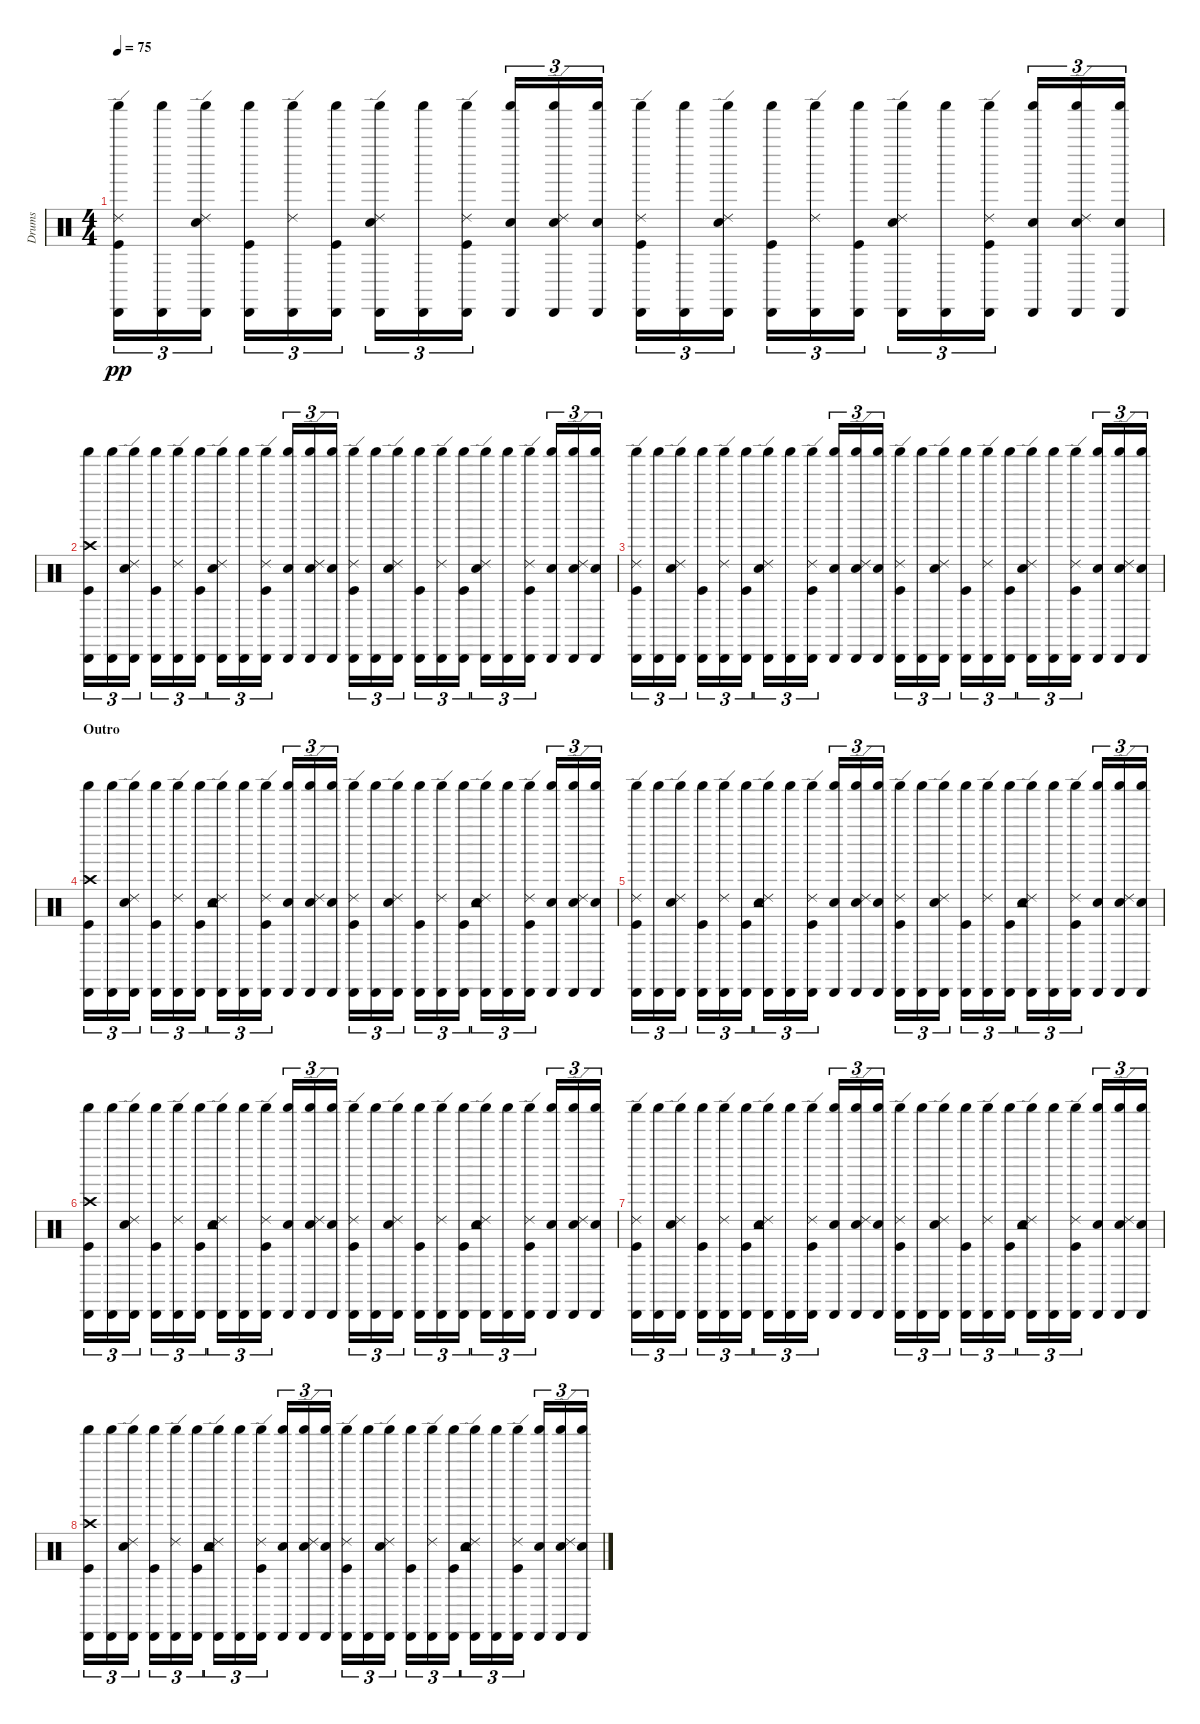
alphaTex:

\track ("Drums" "Drums") {instrument percussion}
\staff {score}
\articulation defaults
\ts (4 4)
\tempo 75
\clef neutral
\ks c
("Kick (hit)" "Ride (edge) 2" "Cabasa (hit)" "Shaker (hit)").16{tu (3 2) dy pp} ("Cabasa (hit)" "Shaker (hit)").16{tu (3 2)} ("Ride (edge) 2" "Cabasa (hit)" "Electric Snare (hit)" "Shaker (hit)").16{tu (3 2)} ("Cabasa (hit)" "Kick (hit)" "Shaker (hit)").16{tu (3 2)} ("Ride (edge) 2" "Cabasa (hit)" "Shaker (hit)").16{tu (3 2)} ("Cabasa (hit)" "Kick (hit)" "Shaker (hit)").16{tu (3 2)} ("Ride (edge) 2" "Cabasa (hit)" "Electric Snare (hit)" "Shaker (hit)").16{tu (3 2)} ("Cabasa (hit)" "Shaker (hit)").16{tu (3 2)} ("Kick (hit)" "Ride (edge) 2" "Cabasa (hit)" "Shaker (hit)").16{tu (3 2)} ("Cabasa (hit)" "Electric Snare (hit)" "Shaker (hit)").16{tu (3 2)} ("Electric Snare (hit)" "Ride (edge) 2" "Cabasa (hit)" "Shaker (hit)").16{tu (3 2)} ("Cabasa (hit)" "Electric Snare (hit)" "Shaker (hit)").16{tu (3 2)} ("Cabasa (hit)" "Kick (hit)" "Ride (edge) 2" "Shaker (hit)").16{tu (3 2)} ("Cabasa (hit)" "Shaker (hit)").16{tu (3 2)} ("Electric Snare (hit)" "Ride (edge) 2" "Cabasa (hit)" "Shaker (hit)").16{tu (3 2)} ("Kick (hit)" "Cabasa (hit)" "Shaker (hit)").16{tu (3 2)} ("Ride (edge) 2" "Cabasa (hit)" "Shaker (hit)").16{tu (3 2)} ("Cabasa (hit)" "Kick (hit)" "Shaker (hit)").16{tu (3 2)} ("Cabasa (hit)" "Ride (edge) 2" "Electric Snare (hit)" "Shaker (hit)").16{tu (3 2)} ("Cabasa (hit)" "Shaker (hit)").16{tu (3 2)} ("Cabasa (hit)" "Ride (edge) 2" "Kick (hit)" "Shaker (hit)").16{tu (3 2)} ("Cabasa (hit)" "Electric Snare (hit)" "Shaker (hit)").16{tu (3 2)} ("Electric Snare (hit)" "Ride (edge) 2" "Cabasa (hit)" "Shaker (hit)").16{tu (3 2)} ("Cabasa (hit)" "Electric Snare (hit)" "Shaker (hit)").16{tu (3 2)} |
("Kick (hit)" "Cabasa (hit)" "Crash high (hit)" "Shaker (hit)").16{tu (3 2)} ("Cabasa (hit)" "Shaker (hit)").16{tu (3 2)} ("Electric Snare (hit)" "Ride (edge) 2" "Cabasa (hit)" "Shaker (hit)").16{tu (3 2)} ("Kick (hit)" "Cabasa (hit)" "Shaker (hit)").16{tu (3 2)} ("Cabasa (hit)" "Ride (edge) 2" "Shaker (hit)").16{tu (3 2)} ("Kick (hit)" "Cabasa (hit)" "Shaker (hit)").16{tu (3 2)} ("Ride (edge) 2" "Cabasa (hit)" "Electric Snare (hit)" "Shaker (hit)").16{tu (3 2)} ("Cabasa (hit)" "Shaker (hit)").16{tu (3 2)} ("Cabasa (hit)" "Ride (edge) 2" "Kick (hit)" "Shaker (hit)").16{tu (3 2)} ("Cabasa (hit)" "Electric Snare (hit)" "Shaker (hit)").16{tu (3 2)} ("Electric Snare (hit)" "Cabasa (hit)" "Ride (edge) 2" "Shaker (hit)").16{tu (3 2)} ("Cabasa (hit)" "Electric Snare (hit)" "Shaker (hit)").16{tu (3 2)} ("Cabasa (hit)" "Kick (hit)" "Ride (edge) 2" "Shaker (hit)").16{tu (3 2)} ("Cabasa (hit)" "Shaker (hit)").16{tu (3 2)} ("Ride (edge) 2" "Cabasa (hit)" "Electric Snare (hit)" "Shaker (hit)").16{tu (3 2)} ("Cabasa (hit)" "Kick (hit)" "Shaker (hit)").16{tu (3 2)} ("Cabasa (hit)" "Ride (edge) 2" "Shaker (hit)").16{tu (3 2)} ("Kick (hit)" "Cabasa (hit)" "Shaker (hit)").16{tu (3 2)} ("Electric Snare (hit)" "Cabasa (hit)" "Ride (edge) 2" "Shaker (hit)").16{tu (3 2)} ("Cabasa (hit)" "Shaker (hit)").16{tu (3 2)} ("Cabasa (hit)" "Kick (hit)" "Ride (edge) 2" "Shaker (hit)").16{tu (3 2)} ("Cabasa (hit)" "Electric Snare (hit)" "Shaker (hit)").16{tu (3 2)} ("Electric Snare (hit)" "Ride (edge) 2" "Cabasa (hit)" "Shaker (hit)").16{tu (3 2)} ("Cabasa (hit)" "Electric Snare (hit)" "Shaker (hit)").16{tu (3 2)} |
("Kick (hit)" "Ride (edge) 2" "Cabasa (hit)" "Shaker (hit)").16{tu (3 2)} ("Cabasa (hit)" "Shaker (hit)").16{tu (3 2)} ("Ride (edge) 2" "Cabasa (hit)" "Electric Snare (hit)" "Shaker (hit)").16{tu (3 2)} ("Cabasa (hit)" "Kick (hit)" "Shaker (hit)").16{tu (3 2)} ("Ride (edge) 2" "Cabasa (hit)" "Shaker (hit)").16{tu (3 2)} ("Cabasa (hit)" "Kick (hit)" "Shaker (hit)").16{tu (3 2)} ("Ride (edge) 2" "Cabasa (hit)" "Electric Snare (hit)" "Shaker (hit)").16{tu (3 2)} ("Cabasa (hit)" "Shaker (hit)").16{tu (3 2)} ("Kick (hit)" "Ride (edge) 2" "Cabasa (hit)" "Shaker (hit)").16{tu (3 2)} ("Cabasa (hit)" "Electric Snare (hit)" "Shaker (hit)").16{tu (3 2)} ("Electric Snare (hit)" "Ride (edge) 2" "Cabasa (hit)" "Shaker (hit)").16{tu (3 2)} ("Cabasa (hit)" "Electric Snare (hit)" "Shaker (hit)").16{tu (3 2)} ("Cabasa (hit)" "Kick (hit)" "Ride (edge) 2" "Shaker (hit)").16{tu (3 2)} ("Cabasa (hit)" "Shaker (hit)").16{tu (3 2)} ("Electric Snare (hit)" "Ride (edge) 2" "Cabasa (hit)" "Shaker (hit)").16{tu (3 2)} ("Kick (hit)" "Cabasa (hit)" "Shaker (hit)").16{tu (3 2)} ("Ride (edge) 2" "Cabasa (hit)" "Shaker (hit)").16{tu (3 2)} ("Cabasa (hit)" "Kick (hit)" "Shaker (hit)").16{tu (3 2)} ("Cabasa (hit)" "Ride (edge) 2" "Electric Snare (hit)" "Shaker (hit)").16{tu (3 2)} ("Cabasa (hit)" "Shaker (hit)").16{tu (3 2)} ("Cabasa (hit)" "Ride (edge) 2" "Kick (hit)" "Shaker (hit)").16{tu (3 2)} ("Cabasa (hit)" "Electric Snare (hit)" "Shaker (hit)").16{tu (3 2)} ("Electric Snare (hit)" "Ride (edge) 2" "Cabasa (hit)" "Shaker (hit)").16{tu (3 2)} ("Cabasa (hit)" "Electric Snare (hit)" "Shaker (hit)").16{tu (3 2)} |
\section ("" "Outro")
("Kick (hit)" "Cabasa (hit)" "Crash high (hit)" "Shaker (hit)").16{tu (3 2)} ("Cabasa (hit)" "Shaker (hit)").16{tu (3 2)} ("Cabasa (hit)" "Ride (edge) 2" "Electric Snare (hit)" "Shaker (hit)").16{tu (3 2)} ("Kick (hit)" "Cabasa (hit)" "Shaker (hit)").16{tu (3 2)} ("Cabasa (hit)" "Ride (edge) 2" "Shaker (hit)").16{tu (3 2)} ("Kick (hit)" "Cabasa (hit)" "Shaker (hit)").16{tu (3 2)} ("Electric Snare (hit)" "Ride (edge) 2" "Cabasa (hit)" "Tambourine (hit)" "Shaker (hit)").16{tu (3 2)} ("Cabasa (hit)" "Shaker (hit)").16{tu (3 2)} ("Ride (edge) 2" "Kick (hit)" "Cabasa (hit)" "Shaker (hit)").16{tu (3 2)} ("Electric Snare (hit)" "Cabasa (hit)" "Shaker (hit)").16{tu (3 2)} ("Cabasa (hit)" "Electric Snare (hit)" "Ride (edge) 2" "Shaker (hit)").16{tu (3 2)} ("Cabasa (hit)" "Electric Snare (hit)" "Shaker (hit)").16{tu (3 2)} ("Ride (edge) 2" "Kick (hit)" "Cabasa (hit)" "Shaker (hit)").16{tu (3 2)} ("Cabasa (hit)" "Shaker (hit)").16{tu (3 2)} ("Cabasa (hit)" "Electric Snare (hit)" "Ride (edge) 2" "Shaker (hit)").16{tu (3 2)} ("Kick (hit)" "Cabasa (hit)" "Shaker (hit)").16{tu (3 2)} ("Ride (edge) 2" "Cabasa (hit)" "Shaker (hit)").16{tu (3 2)} ("Kick (hit)" "Cabasa (hit)" "Shaker (hit)").16{tu (3 2)} ("Electric Snare (hit)" "Ride (edge) 2" "Cabasa (hit)" "Tambourine (hit)" "Shaker (hit)").16{tu (3 2)} ("Cabasa (hit)" "Shaker (hit)").16{tu (3 2)} ("Ride (edge) 2" "Kick (hit)" "Cabasa (hit)" "Shaker (hit)").16{tu (3 2)} ("Cabasa (hit)" "Electric Snare (hit)" "Shaker (hit)").16{tu (3 2)} ("Electric Snare (hit)" "Cabasa (hit)" "Ride (edge) 2" "Shaker (hit)").16{tu (3 2)} ("Cabasa (hit)" "Electric Snare (hit)" "Shaker (hit)").16{tu (3 2)} |
("Cabasa (hit)" "Ride (edge) 2" "Kick (hit)" "Shaker (hit)").16{tu (3 2)} ("Cabasa (hit)" "Shaker (hit)").16{tu (3 2)} ("Cabasa (hit)" "Electric Snare (hit)" "Ride (edge) 2" "Shaker (hit)").16{tu (3 2)} ("Kick (hit)" "Cabasa (hit)" "Shaker (hit)").16{tu (3 2)} ("Ride (edge) 2" "Cabasa (hit)" "Shaker (hit)").16{tu (3 2)} ("Kick (hit)" "Cabasa (hit)" "Shaker (hit)").16{tu (3 2)} ("Ride (edge) 2" "Cabasa (hit)" "Electric Snare (hit)" "Tambourine (hit)" "Shaker (hit)").16{tu (3 2)} ("Cabasa (hit)" "Shaker (hit)").16{tu (3 2)} ("Cabasa (hit)" "Kick (hit)" "Ride (edge) 2" "Shaker (hit)").16{tu (3 2)} ("Cabasa (hit)" "Electric Snare (hit)" "Shaker (hit)").16{tu (3 2)} ("Cabasa (hit)" "Ride (edge) 2" "Electric Snare (hit)" "Shaker (hit)").16{tu (3 2)} ("Cabasa (hit)" "Electric Snare (hit)" "Shaker (hit)").16{tu (3 2)} ("Kick (hit)" "Ride (edge) 2" "Cabasa (hit)" "Shaker (hit)").16{tu (3 2)} ("Cabasa (hit)" "Shaker (hit)").16{tu (3 2)} ("Cabasa (hit)" "Electric Snare (hit)" "Ride (edge) 2" "Shaker (hit)").16{tu (3 2)} ("Kick (hit)" "Cabasa (hit)" "Shaker (hit)").16{tu (3 2)} ("Cabasa (hit)" "Ride (edge) 2" "Shaker (hit)").16{tu (3 2)} ("Kick (hit)" "Cabasa (hit)" "Shaker (hit)").16{tu (3 2)} ("Cabasa (hit)" "Ride (edge) 2" "Electric Snare (hit)" "Tambourine (hit)" "Shaker (hit)").16{tu (3 2)} ("Cabasa (hit)" "Shaker (hit)").16{tu (3 2)} ("Ride (edge) 2" "Kick (hit)" "Cabasa (hit)" "Shaker (hit)").16{tu (3 2)} ("Cabasa (hit)" "Electric Snare (hit)" "Shaker (hit)").16{tu (3 2)} ("Electric Snare (hit)" "Cabasa (hit)" "Ride (edge) 2" "Shaker (hit)").16{tu (3 2)} ("Cabasa (hit)" "Electric Snare (hit)" "Shaker (hit)").16{tu (3 2)} |
("Kick (hit)" "Cabasa (hit)" "Crash high (hit)" "Shaker (hit)").16{tu (3 2)} ("Cabasa (hit)" "Shaker (hit)").16{tu (3 2)} ("Cabasa (hit)" "Ride (edge) 2" "Electric Snare (hit)" "Shaker (hit)").16{tu (3 2)} ("Kick (hit)" "Cabasa (hit)" "Shaker (hit)").16{tu (3 2)} ("Cabasa (hit)" "Ride (edge) 2" "Shaker (hit)").16{tu (3 2)} ("Kick (hit)" "Cabasa (hit)" "Shaker (hit)").16{tu (3 2)} ("Electric Snare (hit)" "Ride (edge) 2" "Cabasa (hit)" "Tambourine (hit)" "Shaker (hit)").16{tu (3 2)} ("Cabasa (hit)" "Shaker (hit)").16{tu (3 2)} ("Ride (edge) 2" "Kick (hit)" "Cabasa (hit)" "Shaker (hit)").16{tu (3 2)} ("Electric Snare (hit)" "Cabasa (hit)" "Shaker (hit)").16{tu (3 2)} ("Cabasa (hit)" "Electric Snare (hit)" "Ride (edge) 2" "Shaker (hit)").16{tu (3 2)} ("Cabasa (hit)" "Electric Snare (hit)" "Shaker (hit)").16{tu (3 2)} ("Ride (edge) 2" "Kick (hit)" "Cabasa (hit)" "Shaker (hit)").16{tu (3 2)} ("Cabasa (hit)" "Shaker (hit)").16{tu (3 2)} ("Cabasa (hit)" "Electric Snare (hit)" "Ride (edge) 2" "Shaker (hit)").16{tu (3 2)} ("Kick (hit)" "Cabasa (hit)" "Shaker (hit)").16{tu (3 2)} ("Ride (edge) 2" "Cabasa (hit)" "Shaker (hit)").16{tu (3 2)} ("Kick (hit)" "Cabasa (hit)" "Shaker (hit)").16{tu (3 2)} ("Electric Snare (hit)" "Ride (edge) 2" "Cabasa (hit)" "Tambourine (hit)" "Shaker (hit)").16{tu (3 2)} ("Cabasa (hit)" "Shaker (hit)").16{tu (3 2)} ("Ride (edge) 2" "Kick (hit)" "Cabasa (hit)" "Shaker (hit)").16{tu (3 2)} ("Cabasa (hit)" "Electric Snare (hit)" "Shaker (hit)").16{tu (3 2)} ("Electric Snare (hit)" "Cabasa (hit)" "Ride (edge) 2" "Shaker (hit)").16{tu (3 2)} ("Cabasa (hit)" "Electric Snare (hit)" "Shaker (hit)").16{tu (3 2)} |
("Cabasa (hit)" "Ride (edge) 2" "Kick (hit)" "Shaker (hit)").16{tu (3 2)} ("Cabasa (hit)" "Shaker (hit)").16{tu (3 2)} ("Cabasa (hit)" "Electric Snare (hit)" "Ride (edge) 2" "Shaker (hit)").16{tu (3 2)} ("Kick (hit)" "Cabasa (hit)" "Shaker (hit)").16{tu (3 2)} ("Ride (edge) 2" "Cabasa (hit)" "Shaker (hit)").16{tu (3 2)} ("Kick (hit)" "Cabasa (hit)" "Shaker (hit)").16{tu (3 2)} ("Ride (edge) 2" "Cabasa (hit)" "Electric Snare (hit)" "Tambourine (hit)" "Shaker (hit)").16{tu (3 2)} ("Cabasa (hit)" "Shaker (hit)").16{tu (3 2)} ("Cabasa (hit)" "Kick (hit)" "Ride (edge) 2" "Shaker (hit)").16{tu (3 2)} ("Cabasa (hit)" "Electric Snare (hit)" "Shaker (hit)").16{tu (3 2)} ("Cabasa (hit)" "Ride (edge) 2" "Electric Snare (hit)" "Shaker (hit)").16{tu (3 2)} ("Cabasa (hit)" "Electric Snare (hit)" "Shaker (hit)").16{tu (3 2)} ("Kick (hit)" "Ride (edge) 2" "Cabasa (hit)" "Shaker (hit)").16{tu (3 2)} ("Cabasa (hit)" "Shaker (hit)").16{tu (3 2)} ("Cabasa (hit)" "Electric Snare (hit)" "Ride (edge) 2" "Shaker (hit)").16{tu (3 2)} ("Kick (hit)" "Cabasa (hit)" "Shaker (hit)").16{tu (3 2)} ("Cabasa (hit)" "Ride (edge) 2" "Shaker (hit)").16{tu (3 2)} ("Kick (hit)" "Cabasa (hit)" "Shaker (hit)").16{tu (3 2)} ("Cabasa (hit)" "Ride (edge) 2" "Electric Snare (hit)" "Tambourine (hit)" "Shaker (hit)").16{tu (3 2)} ("Cabasa (hit)" "Shaker (hit)").16{tu (3 2)} ("Ride (edge) 2" "Kick (hit)" "Cabasa (hit)" "Shaker (hit)").16{tu (3 2)} ("Cabasa (hit)" "Electric Snare (hit)" "Shaker (hit)").16{tu (3 2)} ("Electric Snare (hit)" "Cabasa (hit)" "Ride (edge) 2" "Shaker (hit)").16{tu (3 2)} ("Cabasa (hit)" "Electric Snare (hit)" "Shaker (hit)").16{tu (3 2)} |
("Kick (hit)" "Cabasa (hit)" "Crash high (hit)" "Shaker (hit)").16{tu (3 2)} ("Cabasa (hit)" "Shaker (hit)").16{tu (3 2)} ("Cabasa (hit)" "Ride (edge) 2" "Electric Snare (hit)" "Shaker (hit)").16{tu (3 2)} ("Kick (hit)" "Cabasa (hit)" "Shaker (hit)").16{tu (3 2)} ("Cabasa (hit)" "Ride (edge) 2" "Shaker (hit)").16{tu (3 2)} ("Kick (hit)" "Cabasa (hit)" "Shaker (hit)").16{tu (3 2)} ("Electric Snare (hit)" "Ride (edge) 2" "Cabasa (hit)" "Tambourine (hit)" "Shaker (hit)").16{tu (3 2)} ("Cabasa (hit)" "Shaker (hit)").16{tu (3 2)} ("Ride (edge) 2" "Kick (hit)" "Cabasa (hit)" "Shaker (hit)").16{tu (3 2)} ("Electric Snare (hit)" "Cabasa (hit)" "Shaker (hit)").16{tu (3 2)} ("Cabasa (hit)" "Electric Snare (hit)" "Ride (edge) 2" "Shaker (hit)").16{tu (3 2)} ("Cabasa (hit)" "Electric Snare (hit)" "Shaker (hit)").16{tu (3 2)} ("Ride (edge) 2" "Kick (hit)" "Cabasa (hit)" "Shaker (hit)").16{tu (3 2)} ("Cabasa (hit)" "Shaker (hit)").16{tu (3 2)} ("Cabasa (hit)" "Electric Snare (hit)" "Ride (edge) 2" "Shaker (hit)").16{tu (3 2)} ("Kick (hit)" "Cabasa (hit)" "Shaker (hit)").16{tu (3 2)} ("Ride (edge) 2" "Cabasa (hit)" "Shaker (hit)").16{tu (3 2)} ("Kick (hit)" "Cabasa (hit)" "Shaker (hit)").16{tu (3 2)} ("Electric Snare (hit)" "Ride (edge) 2" "Cabasa (hit)" "Tambourine (hit)" "Shaker (hit)").16{tu (3 2)} ("Cabasa (hit)" "Shaker (hit)").16{tu (3 2)} ("Ride (edge) 2" "Kick (hit)" "Cabasa (hit)" "Shaker (hit)").16{tu (3 2)} ("Cabasa (hit)" "Electric Snare (hit)" "Shaker (hit)").16{tu (3 2)} ("Electric Snare (hit)" "Cabasa (hit)" "Ride (edge) 2" "Shaker (hit)").16{tu (3 2)} ("Cabasa (hit)" "Electric Snare (hit)" "Shaker (hit)").16{tu (3 2)}
